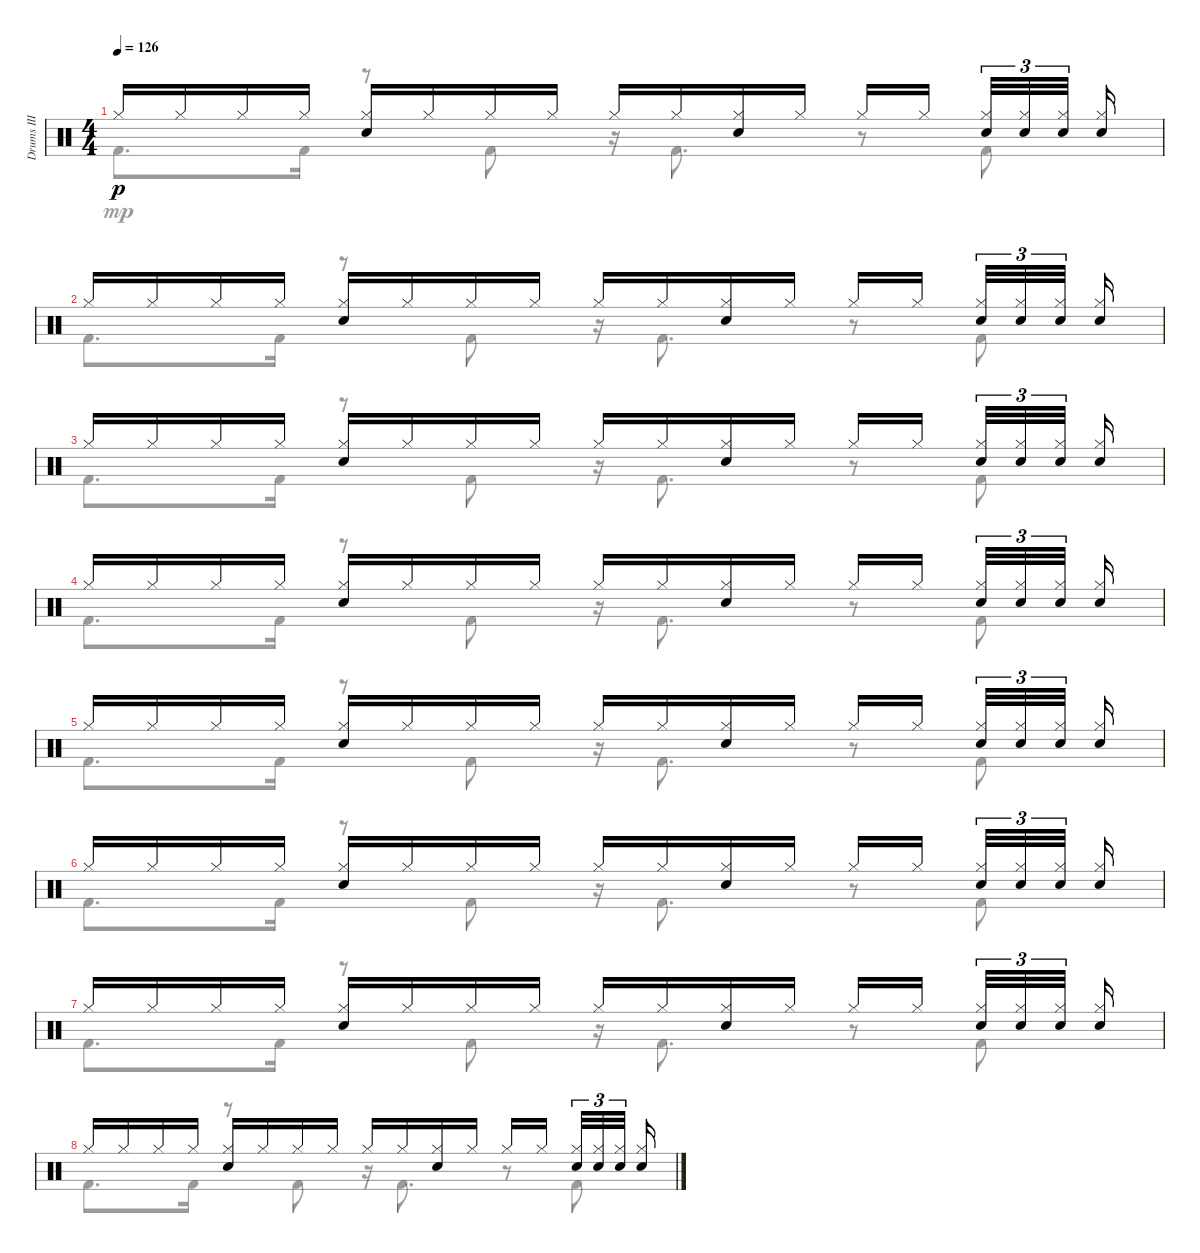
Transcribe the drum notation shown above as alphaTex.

\track ("Drums III" "Drums III") {instrument percussion}
\staff {score}
\articulation defaults
\voice
\ts (4 4)
\tempo 126
\clef neutral
\ks c "Hi-Hat (closed)".16{dy p} "Hi-Hat (closed)".16 "Hi-Hat (closed)".16 "Hi-Hat (closed)".16
("Hi-Hat (closed)" "Electric Snare (hit)").16 "Hi-Hat (closed)".16 "Hi-Hat (closed)".16 "Hi-Hat (closed)".16 "Hi-Hat (closed)".16 "Hi-Hat (closed)".16 ("Hi-Hat (closed)" "Electric Snare (hit)").16 "Hi-Hat (closed)".16 "Hi-Hat (closed)".16 "Hi-Hat (closed)".16{beam splitsecondary} ("Hi-Hat (closed)" "Electric Snare (hit)").32{tu (3 2)} ("Hi-Hat (closed)" "Electric Snare (hit)").32{tu (3 2)} ("Hi-Hat (closed)" "Electric Snare (hit)").32{tu (3 2) beam splitsecondary} ("Hi-Hat (closed)" "Electric Snare (hit)").16 |
"Hi-Hat (closed)".16 "Hi-Hat (closed)".16 "Hi-Hat (closed)".16 "Hi-Hat (closed)".16 ("Hi-Hat (closed)" "Electric Snare (hit)").16 "Hi-Hat (closed)".16 "Hi-Hat (closed)".16 "Hi-Hat (closed)".16 "Hi-Hat (closed)".16 "Hi-Hat (closed)".16 ("Hi-Hat (closed)" "Electric Snare (hit)").16 "Hi-Hat (closed)".16 "Hi-Hat (closed)".16 "Hi-Hat (closed)".16{beam splitsecondary} ("Hi-Hat (closed)" "Electric Snare (hit)").32{tu (3 2)} ("Hi-Hat (closed)" "Electric Snare (hit)").32{tu (3 2)} ("Hi-Hat (closed)" "Electric Snare (hit)").32{tu (3 2) beam splitsecondary} ("Hi-Hat (closed)" "Electric Snare (hit)").16 |
"Hi-Hat (closed)".16 "Hi-Hat (closed)".16 "Hi-Hat (closed)".16 "Hi-Hat (closed)".16 ("Hi-Hat (closed)" "Electric Snare (hit)").16 "Hi-Hat (closed)".16 "Hi-Hat (closed)".16 "Hi-Hat (closed)".16 "Hi-Hat (closed)".16 "Hi-Hat (closed)".16 ("Hi-Hat (closed)" "Electric Snare (hit)").16 "Hi-Hat (closed)".16 "Hi-Hat (closed)".16 "Hi-Hat (closed)".16{beam splitsecondary} ("Hi-Hat (closed)" "Electric Snare (hit)").32{tu (3 2)} ("Hi-Hat (closed)" "Electric Snare (hit)").32{tu (3 2)} ("Hi-Hat (closed)" "Electric Snare (hit)").32{tu (3 2) beam splitsecondary} ("Hi-Hat (closed)" "Electric Snare (hit)").16 |
"Hi-Hat (closed)".16 "Hi-Hat (closed)".16 "Hi-Hat (closed)".16 "Hi-Hat (closed)".16 ("Hi-Hat (closed)" "Electric Snare (hit)").16 "Hi-Hat (closed)".16 "Hi-Hat (closed)".16 "Hi-Hat (closed)".16 "Hi-Hat (closed)".16 "Hi-Hat (closed)".16 ("Hi-Hat (closed)" "Electric Snare (hit)").16 "Hi-Hat (closed)".16 "Hi-Hat (closed)".16 "Hi-Hat (closed)".16{beam splitsecondary} ("Hi-Hat (closed)" "Electric Snare (hit)").32{tu (3 2)} ("Hi-Hat (closed)" "Electric Snare (hit)").32{tu (3 2)} ("Hi-Hat (closed)" "Electric Snare (hit)").32{tu (3 2) beam splitsecondary} ("Hi-Hat (closed)" "Electric Snare (hit)").16 |
"Hi-Hat (closed)".16 "Hi-Hat (closed)".16 "Hi-Hat (closed)".16 "Hi-Hat (closed)".16 ("Hi-Hat (closed)" "Electric Snare (hit)").16 "Hi-Hat (closed)".16 "Hi-Hat (closed)".16 "Hi-Hat (closed)".16 "Hi-Hat (closed)".16 "Hi-Hat (closed)".16 ("Hi-Hat (closed)" "Electric Snare (hit)").16 "Hi-Hat (closed)".16 "Hi-Hat (closed)".16 "Hi-Hat (closed)".16{beam splitsecondary} ("Hi-Hat (closed)" "Electric Snare (hit)").32{tu (3 2)} ("Hi-Hat (closed)" "Electric Snare (hit)").32{tu (3 2)} ("Hi-Hat (closed)" "Electric Snare (hit)").32{tu (3 2) beam splitsecondary} ("Hi-Hat (closed)" "Electric Snare (hit)").16 |
"Hi-Hat (closed)".16 "Hi-Hat (closed)".16 "Hi-Hat (closed)".16 "Hi-Hat (closed)".16 ("Hi-Hat (closed)" "Electric Snare (hit)").16 "Hi-Hat (closed)".16 "Hi-Hat (closed)".16 "Hi-Hat (closed)".16 "Hi-Hat (closed)".16 "Hi-Hat (closed)".16 ("Hi-Hat (closed)" "Electric Snare (hit)").16 "Hi-Hat (closed)".16 "Hi-Hat (closed)".16 "Hi-Hat (closed)".16{beam splitsecondary} ("Hi-Hat (closed)" "Electric Snare (hit)").32{tu (3 2)} ("Hi-Hat (closed)" "Electric Snare (hit)").32{tu (3 2)} ("Hi-Hat (closed)" "Electric Snare (hit)").32{tu (3 2) beam splitsecondary} ("Hi-Hat (closed)" "Electric Snare (hit)").16 |
"Hi-Hat (closed)".16 "Hi-Hat (closed)".16 "Hi-Hat (closed)".16 "Hi-Hat (closed)".16 ("Hi-Hat (closed)" "Electric Snare (hit)").16 "Hi-Hat (closed)".16 "Hi-Hat (closed)".16 "Hi-Hat (closed)".16 "Hi-Hat (closed)".16 "Hi-Hat (closed)".16 ("Hi-Hat (closed)" "Electric Snare (hit)").16 "Hi-Hat (closed)".16 "Hi-Hat (closed)".16 "Hi-Hat (closed)".16{beam splitsecondary} ("Hi-Hat (closed)" "Electric Snare (hit)").32{tu (3 2)} ("Hi-Hat (closed)" "Electric Snare (hit)").32{tu (3 2)} ("Hi-Hat (closed)" "Electric Snare (hit)").32{tu (3 2) beam splitsecondary} ("Hi-Hat (closed)" "Electric Snare (hit)").16 |
"Hi-Hat (closed)".16 "Hi-Hat (closed)".16 "Hi-Hat (closed)".16 "Hi-Hat (closed)".16 ("Hi-Hat (closed)" "Electric Snare (hit)").16 "Hi-Hat (closed)".16 "Hi-Hat (closed)".16 "Hi-Hat (closed)".16 "Hi-Hat (closed)".16 "Hi-Hat (closed)".16 ("Hi-Hat (closed)" "Electric Snare (hit)").16 "Hi-Hat (closed)".16 "Hi-Hat (closed)".16 "Hi-Hat (closed)".16{beam splitsecondary} ("Hi-Hat (closed)" "Electric Snare (hit)").32{tu (3 2)} ("Hi-Hat (closed)" "Electric Snare (hit)").32{tu (3 2)} ("Hi-Hat (closed)" "Electric Snare (hit)").32{tu (3 2) beam splitsecondary} ("Hi-Hat (closed)" "Electric Snare (hit)").16
\voice
\clef neutral
\ottava regular
\simile none
\ks c "Kick (hit) 2".8{d dy mp} "Kick (hit) 2".16
r.8 "Kick (hit) 2".8 r.16 "Kick (hit) 2".8{d} r.8 "Kick (hit) 2".8 |
"Kick (hit) 2".8{d} "Kick (hit) 2".16 r.8 "Kick (hit) 2".8 r.16 "Kick (hit) 2".8{d} r.8 "Kick (hit) 2".8 |
"Kick (hit) 2".8{d} "Kick (hit) 2".16 r.8 "Kick (hit) 2".8 r.16 "Kick (hit) 2".8{d} r.8 "Kick (hit) 2".8 |
"Kick (hit) 2".8{d} "Kick (hit) 2".16 r.8 "Kick (hit) 2".8 r.16 "Kick (hit) 2".8{d} r.8 "Kick (hit) 2".8 |
"Kick (hit) 2".8{d} "Kick (hit) 2".16 r.8 "Kick (hit) 2".8 r.16 "Kick (hit) 2".8{d} r.8 "Kick (hit) 2".8 |
"Kick (hit) 2".8{d} "Kick (hit) 2".16 r.8 "Kick (hit) 2".8 r.16 "Kick (hit) 2".8{d} r.8 "Kick (hit) 2".8 |
"Kick (hit) 2".8{d} "Kick (hit) 2".16 r.8 "Kick (hit) 2".8 r.16 "Kick (hit) 2".8{d} r.8 "Kick (hit) 2".8 |
"Kick (hit) 2".8{d} "Kick (hit) 2".16 r.8 "Kick (hit) 2".8 r.16 "Kick (hit) 2".8{d} r.8 "Kick (hit) 2".8
